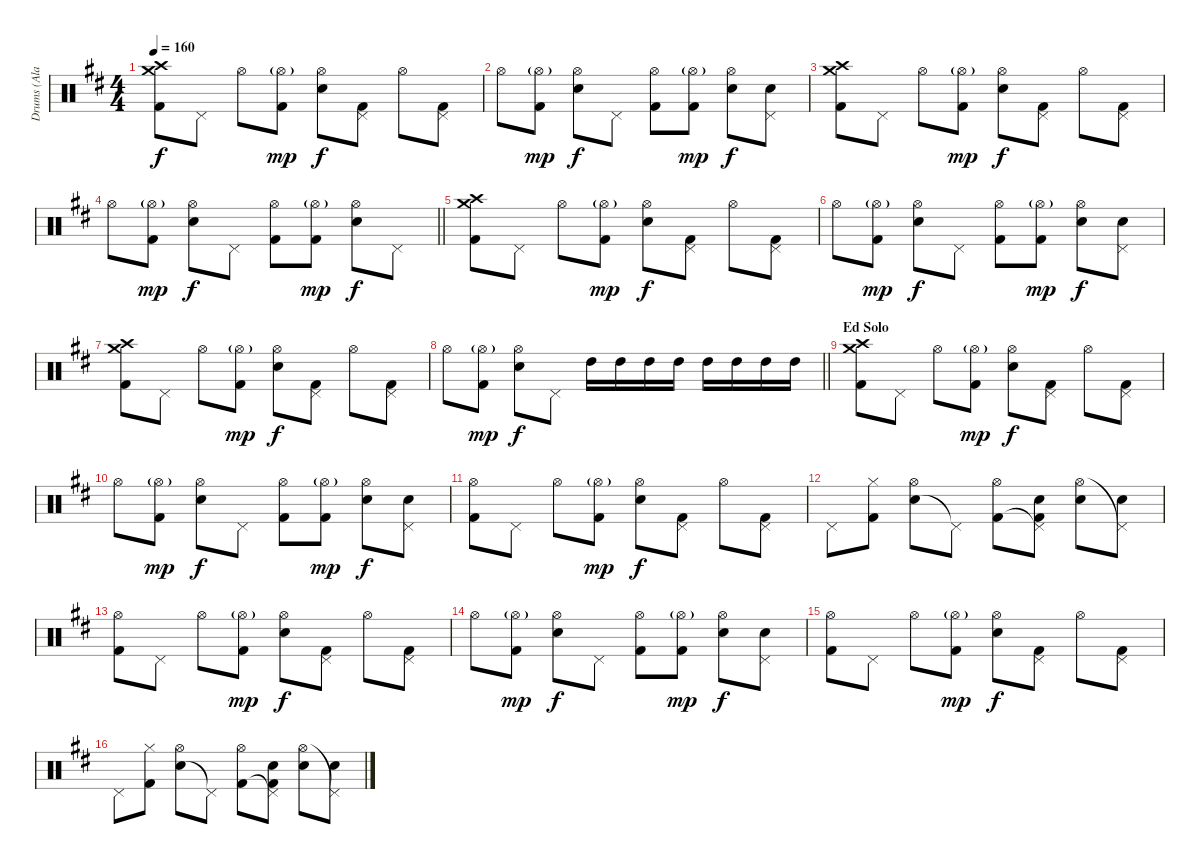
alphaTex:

\track ("Drums (Ala Pyle)" "Drums (Ala") {instrument percussion}
\staff {score}
\articulation defaults
\ts (4 4)
\tempo 160
\clef neutral
\ks d
("Crash medium (hit)" "Crash high (hit)" "Kick (hit) 2").8{dy f} "Pedal Hi-Hat (hit)".8 "Hi-Hat (open)".8 ("Hi-Hat (open)"{g} "Kick (hit) 2").8{dy mp} ("Snare (hit) 2" "Hi-Hat (open)").8{dy f} ("Pedal Hi-Hat (hit)" "Kick (hit) 2").8 "Hi-Hat (open)".8 ("Pedal Hi-Hat (hit)" "Kick (hit) 2").8 |
"Hi-Hat (open)".8 ("Hi-Hat (open)"{g} "Kick (hit) 2").8{dy mp} ("Snare (hit) 2" "Hi-Hat (open)").8{dy f} "Pedal Hi-Hat (hit)".8 ("Hi-Hat (open)" "Kick (hit) 2").8 ("Hi-Hat (open)"{g} "Kick (hit) 2").8{dy mp} ("Snare (hit) 2" "Hi-Hat (open)").8{dy f} ("Snare (hit) 2" "Pedal Hi-Hat (hit)").8 |
("Crash medium (hit)" "Crash high (hit)" "Kick (hit) 2").8 "Pedal Hi-Hat (hit)".8 "Hi-Hat (open)".8 ("Hi-Hat (open)"{g} "Kick (hit) 2").8{dy mp} ("Snare (hit) 2" "Hi-Hat (open)").8{dy f} ("Pedal Hi-Hat (hit)" "Kick (hit) 2").8 "Hi-Hat (open)".8 ("Pedal Hi-Hat (hit)" "Kick (hit) 2").8 |
\barLineRight lightlight "Hi-Hat (open)".8
("Hi-Hat (open)"{g} "Kick (hit) 2").8{dy mp} ("Snare (hit) 2" "Hi-Hat (open)").8{dy f} "Pedal Hi-Hat (hit)".8 ("Hi-Hat (open)" "Kick (hit) 2").8 ("Hi-Hat (open)"{g} "Kick (hit) 2").8{dy mp} ("Snare (hit) 2" "Hi-Hat (open)").8{dy f} "Pedal Hi-Hat (hit)".8 |
("Crash medium (hit)" "Crash high (hit)" "Kick (hit) 2").8 "Pedal Hi-Hat (hit)".8 "Hi-Hat (open)".8 ("Hi-Hat (open)"{g} "Kick (hit) 2").8{dy mp} ("Snare (hit) 2" "Hi-Hat (open)").8{dy f} ("Pedal Hi-Hat (hit)" "Kick (hit) 2").8 "Hi-Hat (open)".8 ("Pedal Hi-Hat (hit)" "Kick (hit) 2").8 |
"Hi-Hat (open)".8 ("Hi-Hat (open)"{g} "Kick (hit) 2").8{dy mp} ("Snare (hit) 2" "Hi-Hat (open)").8{dy f} "Pedal Hi-Hat (hit)".8 ("Hi-Hat (open)" "Kick (hit) 2").8 ("Hi-Hat (open)"{g} "Kick (hit) 2").8{dy mp} ("Snare (hit) 2" "Hi-Hat (open)").8{dy f} ("Snare (hit) 2" "Pedal Hi-Hat (hit)").8 |
("Crash medium (hit)" "Crash high (hit)" "Kick (hit) 2").8 "Pedal Hi-Hat (hit)".8 "Hi-Hat (open)".8 ("Hi-Hat (open)"{g} "Kick (hit) 2").8{dy mp} ("Snare (hit) 2" "Hi-Hat (open)").8{dy f} ("Pedal Hi-Hat (hit)" "Kick (hit) 2").8 "Hi-Hat (open)".8 ("Pedal Hi-Hat (hit)" "Kick (hit) 2").8 |
\barLineRight lightlight "Hi-Hat (open)".8
("Hi-Hat (open)"{g} "Kick (hit) 2").8{dy mp} ("Snare (hit) 2" "Hi-Hat (open)").8{dy f} "Pedal Hi-Hat (hit)".8 "High Tom (hit)".16 "High Tom (hit)".16 "High Tom (hit)".16 "High Tom (hit)".16 "High Tom (hit)".16 "High Tom (hit)".16 "High Tom (hit)".16 "High Tom (hit)".16 |
\section ("" "Ed Solo")
("Crash medium (hit)" "Crash high (hit)" "Kick (hit) 2").8 "Pedal Hi-Hat (hit)".8 "Hi-Hat (open)".8 ("Hi-Hat (open)"{g} "Kick (hit) 2").8{dy mp} ("Snare (hit) 2" "Hi-Hat (open)").8{dy f} ("Pedal Hi-Hat (hit)" "Kick (hit) 2").8 "Hi-Hat (open)".8 ("Pedal Hi-Hat (hit)" "Kick (hit) 2").8 |
"Hi-Hat (open)".8 ("Hi-Hat (open)"{g} "Kick (hit) 2").8{dy mp} ("Snare (hit) 2" "Hi-Hat (open)").8{dy f} "Pedal Hi-Hat (hit)".8 ("Hi-Hat (open)" "Kick (hit) 2").8 ("Hi-Hat (open)"{g} "Kick (hit) 2").8{dy mp} ("Snare (hit) 2" "Hi-Hat (open)").8{dy f} ("Snare (hit) 2" "Pedal Hi-Hat (hit)").8 |
("Hi-Hat (open)" "Kick (hit) 2").8 "Pedal Hi-Hat (hit)".8 "Hi-Hat (open)".8 ("Hi-Hat (open)"{g} "Kick (hit) 2").8{dy mp} ("Snare (hit) 2" "Hi-Hat (open)").8{dy f} ("Pedal Hi-Hat (hit)" "Kick (hit) 2").8 "Hi-Hat (open)".8 ("Pedal Hi-Hat (hit)" "Kick (hit) 2").8 |
"Pedal Hi-Hat (hit)".8 ("Hi-Hat (closed)" "Kick (hit) 2").8 ("Snare (hit) 2" "Hi-Hat (open)").8 "Pedal Hi-Hat (hit)"{t}.8 ("Hi-Hat (open)" "Kick (hit) 2").8 ("Snare (hit) 2" "Pedal Hi-Hat (hit)"{t} "Kick (hit) 2").8 ("Snare (hit) 2" "Hi-Hat (open)").8 ("Snare (hit) 2" "Pedal Hi-Hat (hit)"{t}).8 |
("Hi-Hat (open)" "Kick (hit) 2").8 "Pedal Hi-Hat (hit)".8 "Hi-Hat (open)".8 ("Hi-Hat (open)"{g} "Kick (hit) 2").8{dy mp} ("Snare (hit) 2" "Hi-Hat (open)").8{dy f} ("Pedal Hi-Hat (hit)" "Kick (hit) 2").8 "Hi-Hat (open)".8 ("Pedal Hi-Hat (hit)" "Kick (hit) 2").8 |
"Hi-Hat (open)".8 ("Hi-Hat (open)"{g} "Kick (hit) 2").8{dy mp} ("Snare (hit) 2" "Hi-Hat (open)").8{dy f} "Pedal Hi-Hat (hit)".8 ("Hi-Hat (open)" "Kick (hit) 2").8 ("Hi-Hat (open)"{g} "Kick (hit) 2").8{dy mp} ("Snare (hit) 2" "Hi-Hat (open)").8{dy f} ("Snare (hit) 2" "Pedal Hi-Hat (hit)").8 |
("Hi-Hat (open)" "Kick (hit) 2").8 "Pedal Hi-Hat (hit)".8 "Hi-Hat (open)".8 ("Hi-Hat (open)"{g} "Kick (hit) 2").8{dy mp} ("Snare (hit) 2" "Hi-Hat (open)").8{dy f} ("Pedal Hi-Hat (hit)" "Kick (hit) 2").8 "Hi-Hat (open)".8 ("Pedal Hi-Hat (hit)" "Kick (hit) 2").8 |
"Pedal Hi-Hat (hit)".8 ("Hi-Hat (closed)" "Kick (hit) 2").8 ("Snare (hit) 2" "Hi-Hat (open)").8 "Pedal Hi-Hat (hit)"{t}.8 ("Hi-Hat (open)" "Kick (hit) 2").8 ("Snare (hit) 2" "Pedal Hi-Hat (hit)"{t} "Kick (hit) 2").8 ("Snare (hit) 2" "Hi-Hat (open)").8 ("Snare (hit) 2" "Pedal Hi-Hat (hit)"{t}).8
